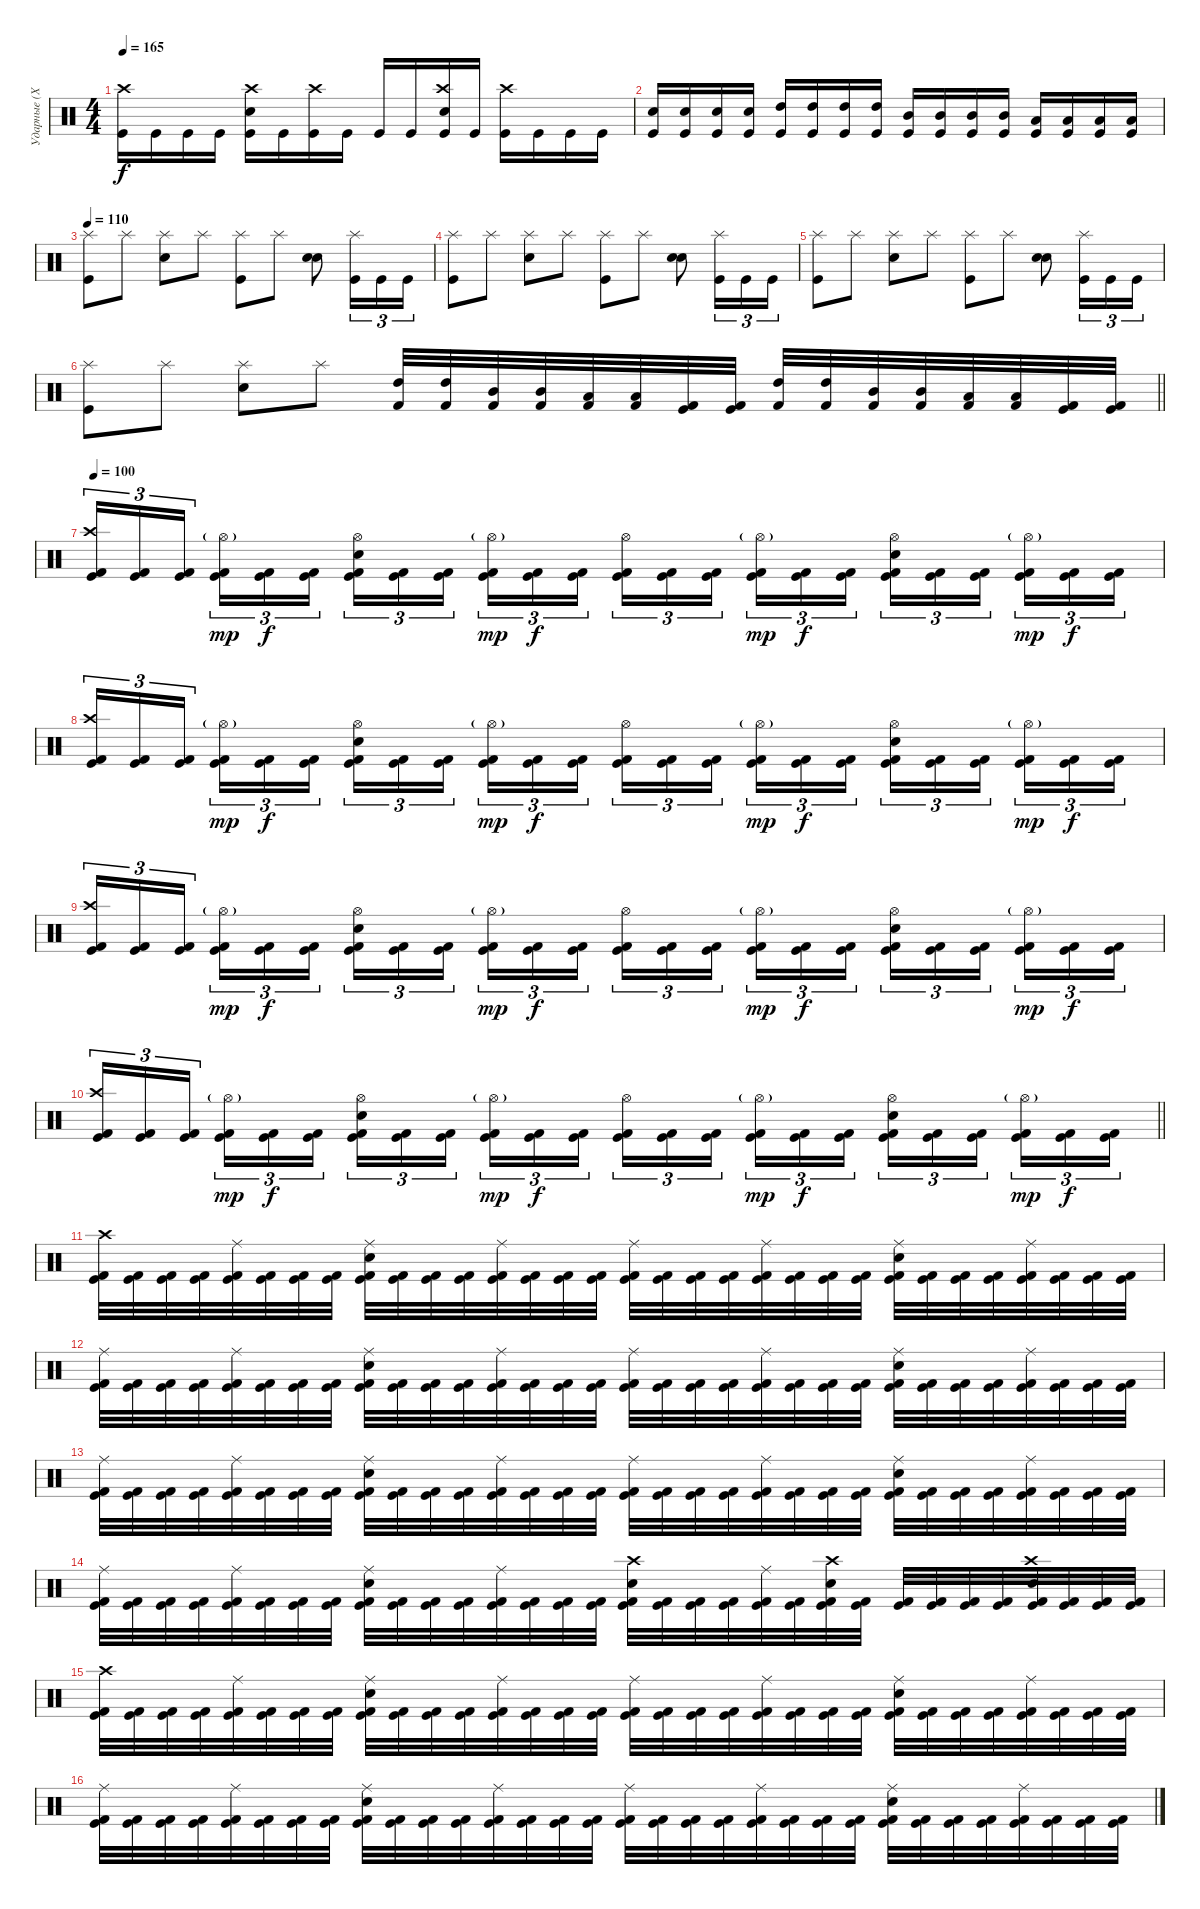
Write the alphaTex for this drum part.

\track ("Ударные (Хеллхаммер)" "Ударные (Х") {instrument percussion}
\staff {score}
\articulation defaults
\ts (4 4)
\tempo 165
\clef neutral
\ks c
("Kick (hit)" "Crash high (hit)").16{dy f} "Kick (hit)".16 "Kick (hit)".16 "Kick (hit)".16 ("Kick (hit)" "Electric Snare (hit)" "Crash high (hit)").16 "Kick (hit)".16 ("Kick (hit)" "Crash high (hit)").16 "Kick (hit)".16 "Kick (hit)".16 "Kick (hit)".16 ("Kick (hit)" "Electric Snare (hit)" "Crash high (hit)").16 "Kick (hit)".16 ("Kick (hit)" "Crash high (hit)").16 "Kick (hit)".16 "Kick (hit)".16 "Kick (hit)".16 |
("Kick (hit)" "Electric Snare (hit)").16 ("Kick (hit)" "Electric Snare (hit)").16 ("Kick (hit)" "Electric Snare (hit)").16 ("Kick (hit)" "Electric Snare (hit)").16 ("Kick (hit)" "High Tom (hit)").16 ("High Tom (hit)" "Kick (hit)").16 ("Kick (hit)" "High Tom (hit)").16 ("Kick (hit)" "High Tom (hit)").16 ("Kick (hit)" "Mid Tom (hit)").16 ("Kick (hit)" "Mid Tom (hit)").16 ("Kick (hit)" "Mid Tom (hit)").16 ("Kick (hit)" "Mid Tom (hit)").16 ("Kick (hit)" "Low Tom (hit)").16 ("Low Tom (hit)" "Kick (hit)").16 ("Kick (hit)" "Low Tom (hit)").16 ("Kick (hit)" "Low Tom (hit)").16 |
\tempo 110
("Splash (hit)" "Kick (hit)").8 "Splash (hit)".8 ("Splash (hit)" "Electric Snare (hit)").8 "Splash (hit)".8 ("Splash (hit)" "Kick (hit)").8 "Splash (hit)".8 ("Electric Snare (hit)" "Electric Snare (hit)").8 ("Splash (hit)" "Kick (hit)").16{tu (3 2)} "Kick (hit)".16{tu (3 2)} "Kick (hit)".16{tu (3 2)} |
("Splash (hit)" "Kick (hit)").8 "Splash (hit)".8 ("Splash (hit)" "Electric Snare (hit)").8 "Splash (hit)".8 ("Splash (hit)" "Kick (hit)").8 "Splash (hit)".8 ("Electric Snare (hit)" "Electric Snare (hit)").8 ("Splash (hit)" "Kick (hit)").16{tu (3 2)} "Kick (hit)".16{tu (3 2)} "Kick (hit)".16{tu (3 2)} |
("Splash (hit)" "Kick (hit)").8 "Splash (hit)".8 ("Splash (hit)" "Electric Snare (hit)").8 "Splash (hit)".8 ("Splash (hit)" "Kick (hit)").8 "Splash (hit)".8 ("Electric Snare (hit)" "Electric Snare (hit)").8 ("Splash (hit)" "Kick (hit)").16{tu (3 2)} "Kick (hit)".16{tu (3 2)} "Kick (hit)".16{tu (3 2)} |
\barLineRight lightlight
("Splash (hit)" "Kick (hit)").8 "Splash (hit)".8 ("Splash (hit)" "Electric Snare (hit)").8 "Splash (hit)".8 ("Kick (hit) 2" "High Tom (hit)").32 ("Kick (hit) 2" "High Tom (hit)").32 ("Kick (hit) 2" "Mid Tom (hit)").32 ("Kick (hit) 2" "Mid Tom (hit)").32 ("Kick (hit) 2" "Low Tom (hit)").32 ("Kick (hit) 2" "Low Tom (hit)").32 ("Kick (hit) 2" "Kick (hit)").32 ("Kick (hit) 2" "Kick (hit)").32 ("Kick (hit) 2" "High Tom (hit)").32 ("Kick (hit) 2" "High Tom (hit)").32 ("Kick (hit) 2" "Mid Tom (hit)").32 ("Kick (hit) 2" "Mid Tom (hit)").32 ("Kick (hit) 2" "Low Tom (hit)").32 ("Kick (hit) 2" "Low Tom (hit)").32 ("Kick (hit) 2" "Kick (hit)").32 ("Kick (hit) 2" "Kick (hit)").32 |
\tempo 100
("Crash high (hit)" "Kick (hit) 2" "Kick (hit)").16{tu (3 2)} ("Kick (hit) 2" "Kick (hit)").16{tu (3 2)} ("Kick (hit) 2" "Kick (hit)").16{tu (3 2) beam splitsecondary} ("Hi-Hat (open)"{g} "Kick (hit) 2" "Kick (hit)").16{tu (3 2) dy mp} ("Kick (hit) 2" "Kick (hit)").16{tu (3 2) dy f} ("Kick (hit) 2" "Kick (hit)").16{tu (3 2)} ("Electric Snare (hit)" "Hi-Hat (open)" "Kick (hit) 2" "Kick (hit)").16{tu (3 2)} ("Kick (hit) 2" "Kick (hit)").16{tu (3 2)} ("Kick (hit) 2" "Kick (hit)").16{tu (3 2) beam splitsecondary} ("Hi-Hat (open)"{g} "Kick (hit) 2" "Kick (hit)").16{tu (3 2) dy mp} ("Kick (hit) 2" "Kick (hit)").16{tu (3 2) dy f} ("Kick (hit) 2" "Kick (hit)").16{tu (3 2)} ("Hi-Hat (open)" "Kick (hit) 2" "Kick (hit)").16{tu (3 2)} ("Kick (hit) 2" "Kick (hit)").16{tu (3 2)} ("Kick (hit) 2" "Kick (hit)").16{tu (3 2) beam splitsecondary} ("Hi-Hat (open)"{g} "Kick (hit) 2" "Kick (hit)").16{tu (3 2) dy mp} ("Kick (hit) 2" "Kick (hit)").16{tu (3 2) dy f} ("Kick (hit) 2" "Kick (hit)").16{tu (3 2)} ("Electric Snare (hit)" "Hi-Hat (open)" "Kick (hit) 2" "Kick (hit)").16{tu (3 2)} ("Kick (hit) 2" "Kick (hit)").16{tu (3 2)} ("Kick (hit) 2" "Kick (hit)").16{tu (3 2) beam splitsecondary} ("Hi-Hat (open)"{g} "Kick (hit) 2" "Kick (hit)").16{tu (3 2) dy mp} ("Kick (hit) 2" "Kick (hit)").16{tu (3 2) dy f} ("Kick (hit) 2" "Kick (hit)").16{tu (3 2)} |
("Crash high (hit)" "Kick (hit) 2" "Kick (hit)").16{tu (3 2)} ("Kick (hit) 2" "Kick (hit)").16{tu (3 2)} ("Kick (hit) 2" "Kick (hit)").16{tu (3 2) beam splitsecondary} ("Hi-Hat (open)"{g} "Kick (hit) 2" "Kick (hit)").16{tu (3 2) dy mp} ("Kick (hit) 2" "Kick (hit)").16{tu (3 2) dy f} ("Kick (hit) 2" "Kick (hit)").16{tu (3 2)} ("Electric Snare (hit)" "Hi-Hat (open)" "Kick (hit) 2" "Kick (hit)").16{tu (3 2)} ("Kick (hit) 2" "Kick (hit)").16{tu (3 2)} ("Kick (hit) 2" "Kick (hit)").16{tu (3 2) beam splitsecondary} ("Hi-Hat (open)"{g} "Kick (hit) 2" "Kick (hit)").16{tu (3 2) dy mp} ("Kick (hit) 2" "Kick (hit)").16{tu (3 2) dy f} ("Kick (hit) 2" "Kick (hit)").16{tu (3 2)} ("Hi-Hat (open)" "Kick (hit) 2" "Kick (hit)").16{tu (3 2)} ("Kick (hit) 2" "Kick (hit)").16{tu (3 2)} ("Kick (hit) 2" "Kick (hit)").16{tu (3 2) beam splitsecondary} ("Hi-Hat (open)"{g} "Kick (hit) 2" "Kick (hit)").16{tu (3 2) dy mp} ("Kick (hit) 2" "Kick (hit)").16{tu (3 2) dy f} ("Kick (hit) 2" "Kick (hit)").16{tu (3 2)} ("Electric Snare (hit)" "Hi-Hat (open)" "Kick (hit) 2" "Kick (hit)").16{tu (3 2)} ("Kick (hit) 2" "Kick (hit)").16{tu (3 2)} ("Kick (hit) 2" "Kick (hit)").16{tu (3 2) beam splitsecondary} ("Hi-Hat (open)"{g} "Kick (hit) 2" "Kick (hit)").16{tu (3 2) dy mp} ("Kick (hit) 2" "Kick (hit)").16{tu (3 2) dy f} ("Kick (hit) 2" "Kick (hit)").16{tu (3 2)} |
("Crash high (hit)" "Kick (hit) 2" "Kick (hit)").16{tu (3 2)} ("Kick (hit) 2" "Kick (hit)").16{tu (3 2)} ("Kick (hit) 2" "Kick (hit)").16{tu (3 2) beam splitsecondary} ("Hi-Hat (open)"{g} "Kick (hit) 2" "Kick (hit)").16{tu (3 2) dy mp} ("Kick (hit) 2" "Kick (hit)").16{tu (3 2) dy f} ("Kick (hit) 2" "Kick (hit)").16{tu (3 2)} ("Electric Snare (hit)" "Hi-Hat (open)" "Kick (hit) 2" "Kick (hit)").16{tu (3 2)} ("Kick (hit) 2" "Kick (hit)").16{tu (3 2)} ("Kick (hit) 2" "Kick (hit)").16{tu (3 2) beam splitsecondary} ("Hi-Hat (open)"{g} "Kick (hit) 2" "Kick (hit)").16{tu (3 2) dy mp} ("Kick (hit) 2" "Kick (hit)").16{tu (3 2) dy f} ("Kick (hit) 2" "Kick (hit)").16{tu (3 2)} ("Hi-Hat (open)" "Kick (hit) 2" "Kick (hit)").16{tu (3 2)} ("Kick (hit) 2" "Kick (hit)").16{tu (3 2)} ("Kick (hit) 2" "Kick (hit)").16{tu (3 2) beam splitsecondary} ("Hi-Hat (open)"{g} "Kick (hit) 2" "Kick (hit)").16{tu (3 2) dy mp} ("Kick (hit) 2" "Kick (hit)").16{tu (3 2) dy f} ("Kick (hit) 2" "Kick (hit)").16{tu (3 2)} ("Electric Snare (hit)" "Hi-Hat (open)" "Kick (hit) 2" "Kick (hit)").16{tu (3 2)} ("Kick (hit) 2" "Kick (hit)").16{tu (3 2)} ("Kick (hit) 2" "Kick (hit)").16{tu (3 2) beam splitsecondary} ("Hi-Hat (open)"{g} "Kick (hit) 2" "Kick (hit)").16{tu (3 2) dy mp} ("Kick (hit) 2" "Kick (hit)").16{tu (3 2) dy f} ("Kick (hit) 2" "Kick (hit)").16{tu (3 2)} |
\barLineRight lightlight
("Crash high (hit)" "Kick (hit) 2" "Kick (hit)").16{tu (3 2)} ("Kick (hit) 2" "Kick (hit)").16{tu (3 2)} ("Kick (hit) 2" "Kick (hit)").16{tu (3 2) beam splitsecondary} ("Hi-Hat (open)"{g} "Kick (hit) 2" "Kick (hit)").16{tu (3 2) dy mp} ("Kick (hit) 2" "Kick (hit)").16{tu (3 2) dy f} ("Kick (hit) 2" "Kick (hit)").16{tu (3 2)} ("Electric Snare (hit)" "Hi-Hat (open)" "Kick (hit) 2" "Kick (hit)").16{tu (3 2)} ("Kick (hit) 2" "Kick (hit)").16{tu (3 2)} ("Kick (hit) 2" "Kick (hit)").16{tu (3 2) beam splitsecondary} ("Hi-Hat (open)"{g} "Kick (hit) 2" "Kick (hit)").16{tu (3 2) dy mp} ("Kick (hit) 2" "Kick (hit)").16{tu (3 2) dy f} ("Kick (hit) 2" "Kick (hit)").16{tu (3 2)} ("Hi-Hat (open)" "Kick (hit) 2" "Kick (hit)").16{tu (3 2)} ("Kick (hit) 2" "Kick (hit)").16{tu (3 2)} ("Kick (hit) 2" "Kick (hit)").16{tu (3 2) beam splitsecondary} ("Hi-Hat (open)"{g} "Kick (hit) 2" "Kick (hit)").16{tu (3 2) dy mp} ("Kick (hit) 2" "Kick (hit)").16{tu (3 2) dy f} ("Kick (hit) 2" "Kick (hit)").16{tu (3 2)} ("Electric Snare (hit)" "Hi-Hat (open)" "Kick (hit) 2" "Kick (hit)").16{tu (3 2)} ("Kick (hit) 2" "Kick (hit)").16{tu (3 2)} ("Kick (hit) 2" "Kick (hit)").16{tu (3 2) beam splitsecondary} ("Hi-Hat (open)"{g} "Kick (hit) 2" "Kick (hit)").16{tu (3 2) dy mp} ("Kick (hit) 2" "Kick (hit)").16{tu (3 2) dy f} ("Kick (hit) 2" "Kick (hit)").16{tu (3 2)} |
("Kick (hit) 2" "Crash high (hit)" "Kick (hit)").32 ("Kick (hit) 2" "Kick (hit)").32 ("Kick (hit) 2" "Kick (hit)").32 ("Kick (hit) 2" "Kick (hit)").32 ("Kick (hit) 2" "Ride (middle)" "Kick (hit)").32 ("Kick (hit) 2" "Kick (hit)").32 ("Kick (hit) 2" "Kick (hit)").32 ("Kick (hit) 2" "Kick (hit)").32 ("Kick (hit) 2" "Ride (middle)" "Electric Snare (hit)" "Kick (hit)").32 ("Kick (hit) 2" "Kick (hit)").32 ("Kick (hit) 2" "Kick (hit)").32 ("Kick (hit) 2" "Kick (hit)").32 ("Kick (hit) 2" "Ride (middle)" "Kick (hit)").32 ("Kick (hit) 2" "Kick (hit)").32 ("Kick (hit) 2" "Kick (hit)").32 ("Kick (hit) 2" "Kick (hit)").32 ("Kick (hit) 2" "Ride (middle)" "Kick (hit)").32 ("Kick (hit) 2" "Kick (hit)").32 ("Kick (hit) 2" "Kick (hit)").32 ("Kick (hit) 2" "Kick (hit)").32 ("Kick (hit) 2" "Ride (middle)" "Kick (hit)").32 ("Kick (hit) 2" "Kick (hit)").32 ("Kick (hit) 2" "Kick (hit)").32 ("Kick (hit) 2" "Kick (hit)").32 ("Kick (hit) 2" "Ride (middle)" "Electric Snare (hit)" "Kick (hit)").32 ("Kick (hit) 2" "Kick (hit)").32 ("Kick (hit) 2" "Kick (hit)").32 ("Kick (hit) 2" "Kick (hit)").32 ("Kick (hit) 2" "Ride (middle)" "Kick (hit)").32 ("Kick (hit) 2" "Kick (hit)").32 ("Kick (hit) 2" "Kick (hit)").32 ("Kick (hit) 2" "Kick (hit)").32 |
("Kick (hit) 2" "Ride (middle)" "Kick (hit)").32 ("Kick (hit) 2" "Kick (hit)").32 ("Kick (hit) 2" "Kick (hit)").32 ("Kick (hit) 2" "Kick (hit)").32 ("Kick (hit) 2" "Ride (middle)" "Kick (hit)").32 ("Kick (hit) 2" "Kick (hit)").32 ("Kick (hit) 2" "Kick (hit)").32 ("Kick (hit) 2" "Kick (hit)").32 ("Kick (hit) 2" "Ride (middle)" "Electric Snare (hit)" "Kick (hit)").32 ("Kick (hit) 2" "Kick (hit)").32 ("Kick (hit) 2" "Kick (hit)").32 ("Kick (hit) 2" "Kick (hit)").32 ("Kick (hit) 2" "Ride (middle)" "Kick (hit)").32 ("Kick (hit) 2" "Kick (hit)").32 ("Kick (hit) 2" "Kick (hit)").32 ("Kick (hit) 2" "Kick (hit)").32 ("Kick (hit) 2" "Ride (middle)" "Kick (hit)").32 ("Kick (hit) 2" "Kick (hit)").32 ("Kick (hit) 2" "Kick (hit)").32 ("Kick (hit) 2" "Kick (hit)").32 ("Kick (hit) 2" "Ride (middle)" "Kick (hit)").32 ("Kick (hit) 2" "Kick (hit)").32 ("Kick (hit) 2" "Kick (hit)").32 ("Kick (hit) 2" "Kick (hit)").32 ("Kick (hit) 2" "Ride (middle)" "Electric Snare (hit)" "Kick (hit)").32 ("Kick (hit) 2" "Kick (hit)").32 ("Kick (hit) 2" "Kick (hit)").32 ("Kick (hit) 2" "Kick (hit)").32 ("Kick (hit) 2" "Ride (middle)" "Kick (hit)").32 ("Kick (hit) 2" "Kick (hit)").32 ("Kick (hit) 2" "Kick (hit)").32 ("Kick (hit) 2" "Kick (hit)").32 |
("Kick (hit) 2" "Ride (middle)" "Kick (hit)").32 ("Kick (hit) 2" "Kick (hit)").32 ("Kick (hit) 2" "Kick (hit)").32 ("Kick (hit) 2" "Kick (hit)").32 ("Kick (hit) 2" "Ride (middle)" "Kick (hit)").32 ("Kick (hit) 2" "Kick (hit)").32 ("Kick (hit) 2" "Kick (hit)").32 ("Kick (hit) 2" "Kick (hit)").32 ("Kick (hit) 2" "Ride (middle)" "Electric Snare (hit)" "Kick (hit)").32 ("Kick (hit) 2" "Kick (hit)").32 ("Kick (hit) 2" "Kick (hit)").32 ("Kick (hit) 2" "Kick (hit)").32 ("Kick (hit) 2" "Ride (middle)" "Kick (hit)").32 ("Kick (hit) 2" "Kick (hit)").32 ("Kick (hit) 2" "Kick (hit)").32 ("Kick (hit) 2" "Kick (hit)").32 ("Kick (hit) 2" "Ride (middle)" "Kick (hit)").32 ("Kick (hit) 2" "Kick (hit)").32 ("Kick (hit) 2" "Kick (hit)").32 ("Kick (hit) 2" "Kick (hit)").32 ("Kick (hit) 2" "Ride (middle)" "Kick (hit)").32 ("Kick (hit) 2" "Kick (hit)").32 ("Kick (hit) 2" "Kick (hit)").32 ("Kick (hit) 2" "Kick (hit)").32 ("Kick (hit) 2" "Ride (middle)" "Electric Snare (hit)" "Kick (hit)").32 ("Kick (hit) 2" "Kick (hit)").32 ("Kick (hit) 2" "Kick (hit)").32 ("Kick (hit) 2" "Kick (hit)").32 ("Kick (hit) 2" "Ride (middle)" "Kick (hit)").32 ("Kick (hit) 2" "Kick (hit)").32 ("Kick (hit) 2" "Kick (hit)").32 ("Kick (hit) 2" "Kick (hit)").32 |
("Kick (hit) 2" "Ride (middle)" "Kick (hit)").32 ("Kick (hit) 2" "Kick (hit)").32 ("Kick (hit) 2" "Kick (hit)").32 ("Kick (hit) 2" "Kick (hit)").32 ("Kick (hit) 2" "Ride (middle)" "Kick (hit)").32 ("Kick (hit) 2" "Kick (hit)").32 ("Kick (hit) 2" "Kick (hit)").32 ("Kick (hit) 2" "Kick (hit)").32 ("Kick (hit) 2" "Ride (middle)" "Electric Snare (hit)" "Kick (hit)").32 ("Kick (hit) 2" "Kick (hit)").32 ("Kick (hit) 2" "Kick (hit)").32 ("Kick (hit) 2" "Kick (hit)").32 ("Kick (hit) 2" "Ride (middle)" "Kick (hit)").32 ("Kick (hit) 2" "Kick (hit)").32 ("Kick (hit) 2" "Kick (hit)").32 ("Kick (hit) 2" "Kick (hit)").32 ("Kick (hit) 2" "Crash high (hit)" "Electric Snare (hit)" "Kick (hit)").32 ("Kick (hit) 2" "Kick (hit)").32 ("Kick (hit) 2" "Kick (hit)").32 ("Kick (hit) 2" "Kick (hit)").32 ("Kick (hit) 2" "Ride (middle)" "Kick (hit)").32 ("Kick (hit) 2" "Kick (hit)").32 ("Kick (hit) 2" "Crash high (hit)" "Electric Snare (hit)" "Kick (hit)").32 ("Kick (hit) 2" "Kick (hit)").32 ("Kick (hit) 2" "Kick (hit)").32 ("Kick (hit) 2" "Kick (hit)").32 ("Kick (hit) 2" "Kick (hit)").32 ("Kick (hit) 2" "Kick (hit)").32 ("Kick (hit) 2" "Electric Snare (hit)" "Crash high (hit)" "Kick (hit)").32 ("Kick (hit) 2" "Kick (hit)").32 ("Kick (hit) 2" "Kick (hit)").32 ("Kick (hit) 2" "Kick (hit)").32 |
("Kick (hit) 2" "Crash high (hit)" "Kick (hit)").32 ("Kick (hit) 2" "Kick (hit)").32 ("Kick (hit) 2" "Kick (hit)").32 ("Kick (hit) 2" "Kick (hit)").32 ("Kick (hit) 2" "Ride (middle)" "Kick (hit)").32 ("Kick (hit) 2" "Kick (hit)").32 ("Kick (hit) 2" "Kick (hit)").32 ("Kick (hit) 2" "Kick (hit)").32 ("Kick (hit) 2" "Ride (middle)" "Electric Snare (hit)" "Kick (hit)").32 ("Kick (hit) 2" "Kick (hit)").32 ("Kick (hit) 2" "Kick (hit)").32 ("Kick (hit) 2" "Kick (hit)").32 ("Kick (hit) 2" "Ride (middle)" "Kick (hit)").32 ("Kick (hit) 2" "Kick (hit)").32 ("Kick (hit) 2" "Kick (hit)").32 ("Kick (hit) 2" "Kick (hit)").32 ("Kick (hit) 2" "Ride (middle)" "Kick (hit)").32 ("Kick (hit) 2" "Kick (hit)").32 ("Kick (hit) 2" "Kick (hit)").32 ("Kick (hit) 2" "Kick (hit)").32 ("Kick (hit) 2" "Ride (middle)" "Kick (hit)").32 ("Kick (hit) 2" "Kick (hit)").32 ("Kick (hit) 2" "Kick (hit)").32 ("Kick (hit) 2" "Kick (hit)").32 ("Kick (hit) 2" "Ride (middle)" "Electric Snare (hit)" "Kick (hit)").32 ("Kick (hit) 2" "Kick (hit)").32 ("Kick (hit) 2" "Kick (hit)").32 ("Kick (hit) 2" "Kick (hit)").32 ("Kick (hit) 2" "Ride (middle)" "Kick (hit)").32 ("Kick (hit) 2" "Kick (hit)").32 ("Kick (hit) 2" "Kick (hit)").32 ("Kick (hit) 2" "Kick (hit)").32 |
("Kick (hit) 2" "Ride (middle)" "Kick (hit)").32 ("Kick (hit) 2" "Kick (hit)").32 ("Kick (hit) 2" "Kick (hit)").32 ("Kick (hit) 2" "Kick (hit)").32 ("Kick (hit) 2" "Ride (middle)" "Kick (hit)").32 ("Kick (hit) 2" "Kick (hit)").32 ("Kick (hit) 2" "Kick (hit)").32 ("Kick (hit) 2" "Kick (hit)").32 ("Kick (hit) 2" "Ride (middle)" "Electric Snare (hit)" "Kick (hit)").32 ("Kick (hit) 2" "Kick (hit)").32 ("Kick (hit) 2" "Kick (hit)").32 ("Kick (hit) 2" "Kick (hit)").32 ("Kick (hit) 2" "Ride (middle)" "Kick (hit)").32 ("Kick (hit) 2" "Kick (hit)").32 ("Kick (hit) 2" "Kick (hit)").32 ("Kick (hit) 2" "Kick (hit)").32 ("Kick (hit) 2" "Ride (middle)" "Kick (hit)").32 ("Kick (hit) 2" "Kick (hit)").32 ("Kick (hit) 2" "Kick (hit)").32 ("Kick (hit) 2" "Kick (hit)").32 ("Kick (hit) 2" "Ride (middle)" "Kick (hit)").32 ("Kick (hit) 2" "Kick (hit)").32 ("Kick (hit) 2" "Kick (hit)").32 ("Kick (hit) 2" "Kick (hit)").32 ("Kick (hit) 2" "Ride (middle)" "Electric Snare (hit)" "Kick (hit)").32 ("Kick (hit) 2" "Kick (hit)").32 ("Kick (hit) 2" "Kick (hit)").32 ("Kick (hit) 2" "Kick (hit)").32 ("Kick (hit) 2" "Ride (middle)" "Kick (hit)").32 ("Kick (hit) 2" "Kick (hit)").32 ("Kick (hit) 2" "Kick (hit)").32 ("Kick (hit) 2" "Kick (hit)").32
